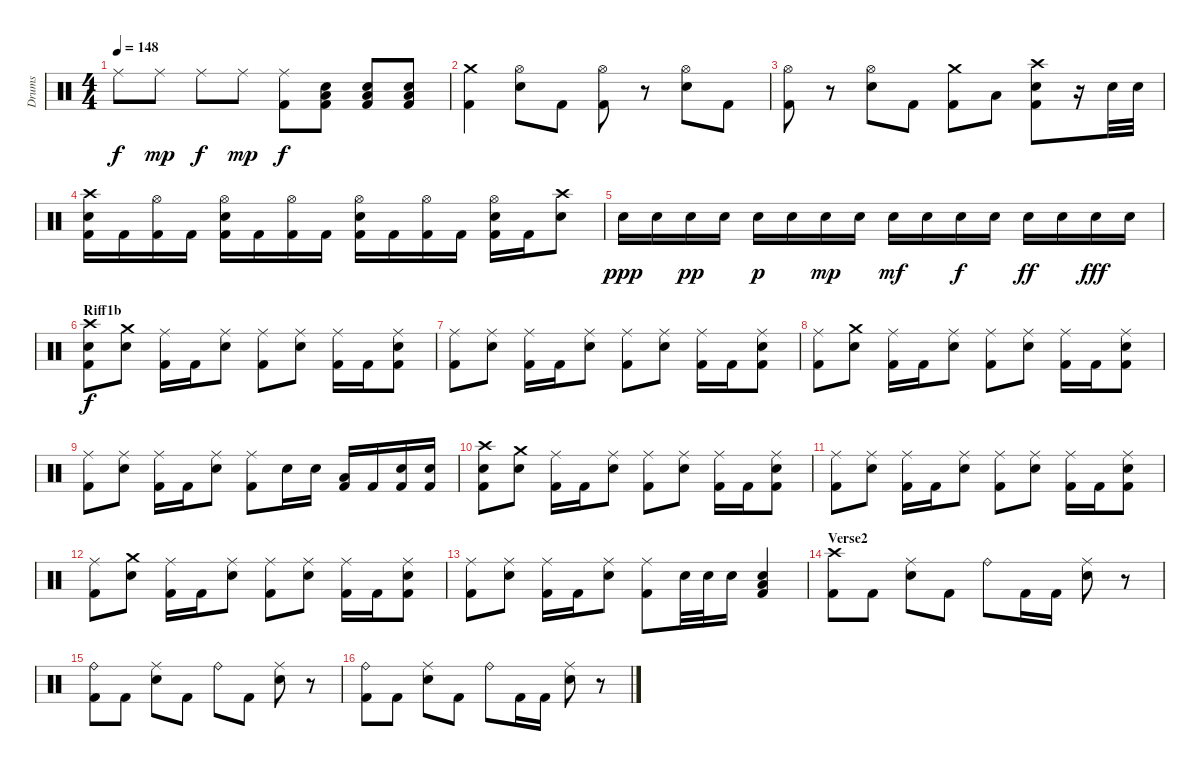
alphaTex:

\track ("Drums" "Drums") {instrument percussion}
\staff {score}
\articulation defaults
\ts (4 4)
\tempo 148
\clef neutral
\ks c "Ride (middle)".8{dy f} "Ride (middle)".8{dy mp} "Ride (middle)".8{dy f} "Ride (middle)".8{dy mp}
("Kick (hit) 2" "Ride (middle)").8{dy f} ("Kick (hit) 2" "Electric Snare (hit)" "Low Floor Tom (hit)").8 ("Kick (hit) 2" "Electric Snare (hit)" "Low Floor Tom (hit)").8 ("Kick (hit) 2" "Electric Snare (hit)" "Low Floor Tom (hit)").8 |
("Kick (hit) 2" "Crash medium (hit)").4 ("Electric Snare (hit)" "Hi-Hat (open)").8 "Kick (hit) 2".8 ("Kick (hit) 2" "Hi-Hat (open)").8 r.8 ("Electric Snare (hit)" "Hi-Hat (open)").8 "Kick (hit) 2".8 |
("Kick (hit) 2" "Hi-Hat (open)").8 r.8 ("Electric Snare (hit)" "Hi-Hat (open)").8 "Kick (hit) 2".8 ("Kick (hit) 2" "Crash medium (hit)").8 "Low Tom (hit)".8 ("Kick (hit) 2" "Electric Snare (hit)" "Crash high (hit)").8 r.16 "Electric Snare (hit)".32 "Electric Snare (hit)".32 |
("Kick (hit) 2" "Electric Snare (hit)" "Crash high (hit)").16 "Kick (hit) 2".16 ("Kick (hit) 2" "Hi-Hat (open)").16 "Kick (hit) 2".16 ("Kick (hit) 2" "Electric Snare (hit)" "Hi-Hat (open)").16 "Kick (hit) 2".16 ("Kick (hit) 2" "Hi-Hat (open)").16 "Kick (hit) 2".16 ("Kick (hit) 2" "Electric Snare (hit)" "Hi-Hat (open)").16 "Kick (hit) 2".16 ("Kick (hit) 2" "Hi-Hat (open)").16 "Kick (hit) 2".16 ("Kick (hit) 2" "Electric Snare (hit)" "Hi-Hat (open)").16 "Kick (hit) 2".16 ("Electric Snare (hit)" "Crash high (hit)").8 |
"Electric Snare (hit)".16{dy ppp} "Electric Snare (hit)".16 "Electric Snare (hit)".16{dy pp} "Electric Snare (hit)".16 "Electric Snare (hit)".16{dy p} "Electric Snare (hit)".16 "Electric Snare (hit)".16{dy mp} "Electric Snare (hit)".16 "Electric Snare (hit)".16{dy mf} "Electric Snare (hit)".16 "Electric Snare (hit)".16{dy f} "Electric Snare (hit)".16 "Electric Snare (hit)".16{dy ff} "Electric Snare (hit)".16 "Electric Snare (hit)".16{dy fff} "Electric Snare (hit)".16 |
\section ("" "Riff1b")
("Kick (hit) 2" "Electric Snare (hit)" "Crash high (hit)").8{dy f} ("Electric Snare (hit)" "Crash medium (hit)").8 ("Kick (hit) 2" "Ride (middle)").16 "Kick (hit) 2".16 ("Electric Snare (hit)" "Ride (middle)").8 ("Kick (hit) 2" "Ride (middle)").8 ("Electric Snare (hit)" "Ride (middle)").8 ("Kick (hit) 2" "Ride (middle)").16 "Kick (hit) 2".16 ("Kick (hit) 2" "Electric Snare (hit)" "Ride (middle)").8 |
("Kick (hit) 2" "Ride (middle)").8 ("Electric Snare (hit)" "Ride (middle)").8 ("Kick (hit) 2" "Ride (middle)").16 "Kick (hit) 2".16 ("Electric Snare (hit)" "Ride (middle)").8 ("Kick (hit) 2" "Ride (middle)").8 ("Electric Snare (hit)" "Ride (middle)").8 ("Kick (hit) 2" "Ride (middle)").16 "Kick (hit) 2".16 ("Kick (hit) 2" "Electric Snare (hit)" "Ride (middle)").8 |
("Kick (hit) 2" "Ride (middle)").8 ("Electric Snare (hit)" "Crash medium (hit)").8 ("Kick (hit) 2" "Ride (middle)").16 "Kick (hit) 2".16 ("Electric Snare (hit)" "Ride (middle)").8 ("Kick (hit) 2" "Ride (middle)").8 ("Electric Snare (hit)" "Ride (middle)").8 ("Kick (hit) 2" "Ride (middle)").16 "Kick (hit) 2".16 ("Kick (hit) 2" "Electric Snare (hit)" "Ride (middle)").8 |
("Kick (hit) 2" "Ride (middle)").8 ("Electric Snare (hit)" "Ride (middle)").8 ("Kick (hit) 2" "Ride (middle)").16 "Kick (hit) 2".16 ("Electric Snare (hit)" "Ride (middle)").8 ("Kick (hit) 2" "Ride (middle)").8 "Electric Snare (hit)".16 "Electric Snare (hit)".16 ("Kick (hit) 2" "Low Tom (hit)").16 "Kick (hit) 2".16 ("Kick (hit) 2" "Electric Snare (hit)").16 ("Kick (hit) 2" "Electric Snare (hit)").16 |
("Kick (hit) 2" "Electric Snare (hit)" "Crash high (hit)").8 ("Electric Snare (hit)" "Crash medium (hit)").8 ("Kick (hit) 2" "Ride (middle)").16 "Kick (hit) 2".16 ("Electric Snare (hit)" "Ride (middle)").8 ("Kick (hit) 2" "Ride (middle)").8 ("Electric Snare (hit)" "Ride (middle)").8 ("Kick (hit) 2" "Ride (middle)").16 "Kick (hit) 2".16 ("Kick (hit) 2" "Electric Snare (hit)" "Ride (middle)").8 |
("Kick (hit) 2" "Ride (middle)").8 ("Electric Snare (hit)" "Ride (middle)").8 ("Kick (hit) 2" "Ride (middle)").16 "Kick (hit) 2".16 ("Electric Snare (hit)" "Ride (middle)").8 ("Kick (hit) 2" "Ride (middle)").8 ("Electric Snare (hit)" "Ride (middle)").8 ("Kick (hit) 2" "Ride (middle)").16 "Kick (hit) 2".16 ("Kick (hit) 2" "Electric Snare (hit)" "Ride (middle)").8 |
("Kick (hit) 2" "Ride (middle)").8 ("Electric Snare (hit)" "Crash medium (hit)").8 ("Kick (hit) 2" "Ride (middle)").16 "Kick (hit) 2".16 ("Electric Snare (hit)" "Ride (middle)").8 ("Kick (hit) 2" "Ride (middle)").8 ("Electric Snare (hit)" "Ride (middle)").8 ("Kick (hit) 2" "Ride (middle)").16 "Kick (hit) 2".16 ("Kick (hit) 2" "Electric Snare (hit)" "Ride (middle)").8 |
("Kick (hit) 2" "Ride (middle)").8 ("Electric Snare (hit)" "Ride (middle)").8 ("Kick (hit) 2" "Ride (middle)").16 "Kick (hit) 2".16 ("Electric Snare (hit)" "Ride (middle)").8 ("Kick (hit) 2" "Ride (middle)").8 "Electric Snare (hit)".32 "Electric Snare (hit)".32 "Electric Snare (hit)".16 ("Kick (hit) 2" "Electric Snare (hit)" "Low Floor Tom (hit)").4 |
\section ("" "Verse2")
("Kick (hit) 2" "Crash high (hit)").8 "Kick (hit) 2".8 ("Electric Snare (hit)" "Ride (middle)").8 "Kick (hit) 2".8 "Ride (bell)".8 "Kick (hit) 2".16 "Kick (hit) 2".16 ("Electric Snare (hit)" "Ride (middle)").8 r.8 |
("Kick (hit) 2" "Ride (bell)").8 "Kick (hit) 2".8 ("Electric Snare (hit)" "Ride (middle)").8 "Kick (hit) 2".8 "Ride (bell)".8 "Kick (hit) 2".8 ("Electric Snare (hit)" "Ride (middle)").8 r.8 |
("Kick (hit) 2" "Ride (bell)").8 "Kick (hit) 2".8 ("Electric Snare (hit)" "Ride (middle)").8 "Kick (hit) 2".8 "Ride (bell)".8 "Kick (hit) 2".16 "Kick (hit) 2".16 ("Electric Snare (hit)" "Ride (middle)").8 r.8
